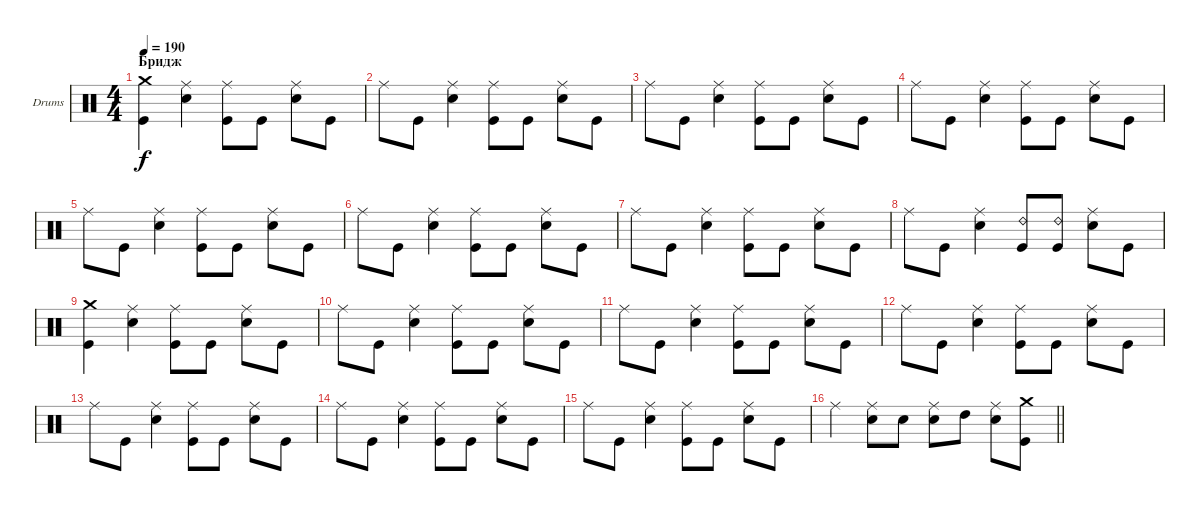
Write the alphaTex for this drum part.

\bracketExtendMode groupsimilarinstruments
\firstSystemTrackNameOrientation horizontal
\otherSystemsTrackNameOrientation horizontal
\track ("Максим Удалов" "Drums") {instrument percussion}
\staff {score}
\articulation defaults
\ts (4 4)
\section ("" "Бридж")
\tempo 190
\clef neutral
\ks c
("Kick (hit)" "Crash medium (hit)").4{dy f} ("Snare (hit) 2" "Ride (middle)").4 ("Kick (hit)" "Ride (middle)").8 "Kick (hit)".8 ("Snare (hit) 2" "Ride (middle)").8 "Kick (hit)".8 |
"Ride (middle)".8 "Kick (hit)".8 ("Snare (hit) 2" "Ride (middle)").4 ("Kick (hit)" "Ride (middle)").8 "Kick (hit)".8 ("Snare (hit) 2" "Ride (middle)").8 "Kick (hit)".8 |
"Ride (middle)".8 "Kick (hit)".8 ("Snare (hit) 2" "Ride (middle)").4 ("Kick (hit)" "Ride (middle)").8 "Kick (hit)".8 ("Snare (hit) 2" "Ride (middle)").8 "Kick (hit)".8 |
"Ride (middle)".8 "Kick (hit)".8 ("Snare (hit) 2" "Ride (middle)").4 ("Kick (hit)" "Ride (middle)").8 "Kick (hit)".8 ("Snare (hit) 2" "Ride (middle)").8 "Kick (hit)".8 |
"Ride (middle)".8 "Kick (hit)".8 ("Snare (hit) 2" "Ride (middle)").4 ("Kick (hit)" "Ride (middle)").8 "Kick (hit)".8 ("Snare (hit) 2" "Ride (middle)").8 "Kick (hit)".8 |
"Ride (middle)".8 "Kick (hit)".8 ("Snare (hit) 2" "Ride (middle)").4 ("Kick (hit)" "Ride (middle)").8 "Kick (hit)".8 ("Snare (hit) 2" "Ride (middle)").8 "Kick (hit)".8 |
"Ride (middle)".8 "Kick (hit)".8 ("Snare (hit) 2" "Ride (middle)").4 ("Kick (hit)" "Ride (middle)").8 "Kick (hit)".8 ("Snare (hit) 2" "Ride (middle)").8 "Kick (hit)".8 |
"Ride (middle)".8 "Kick (hit)".8 ("Snare (hit) 2" "Ride (middle)").4 ("Kick (hit)" "Ride (bell) 2").8 ("Kick (hit)" "Ride (bell) 2").8 ("Snare (hit) 2" "Ride (middle)").8 "Kick (hit)".8 |
("Kick (hit)" "Crash medium (hit)").4 ("Snare (hit) 2" "Ride (middle)").4 ("Kick (hit)" "Ride (middle)").8 "Kick (hit)".8 ("Snare (hit) 2" "Ride (middle)").8 "Kick (hit)".8 |
"Ride (middle)".8 "Kick (hit)".8 ("Snare (hit) 2" "Ride (middle)").4 ("Kick (hit)" "Ride (middle)").8 "Kick (hit)".8 ("Snare (hit) 2" "Ride (middle)").8 "Kick (hit)".8 |
"Ride (middle)".8 "Kick (hit)".8 ("Snare (hit) 2" "Ride (middle)").4 ("Kick (hit)" "Ride (middle)").8 "Kick (hit)".8 ("Snare (hit) 2" "Ride (middle)").8 "Kick (hit)".8 |
"Ride (middle)".8 "Kick (hit)".8 ("Snare (hit) 2" "Ride (middle)").4 ("Kick (hit)" "Ride (middle)").8 "Kick (hit)".8 ("Snare (hit) 2" "Ride (middle)").8 "Kick (hit)".8 |
"Ride (middle)".8 "Kick (hit)".8 ("Snare (hit) 2" "Ride (middle)").4 ("Kick (hit)" "Ride (middle)").8 "Kick (hit)".8 ("Snare (hit) 2" "Ride (middle)").8 "Kick (hit)".8 |
"Ride (middle)".8 "Kick (hit)".8 ("Snare (hit) 2" "Ride (middle)").4 ("Kick (hit)" "Ride (middle)").8 "Kick (hit)".8 ("Snare (hit) 2" "Ride (middle)").8 "Kick (hit)".8 |
"Ride (middle)".8 "Kick (hit)".8 ("Snare (hit) 2" "Ride (middle)").4 ("Kick (hit)" "Ride (middle)").8 "Kick (hit)".8 ("Snare (hit) 2" "Ride (middle)").8 "Kick (hit)".8 |
\barLineRight lightlight "Ride (middle)".4
("Snare (hit) 2" "Ride (middle)").8 "Snare (hit) 2".8 ("Snare (hit) 2" "Ride (middle)").8 "High Tom (hit)".8 ("Snare (hit) 2" "Ride (middle)").8 ("Kick (hit)" "Crash medium (hit)").8
